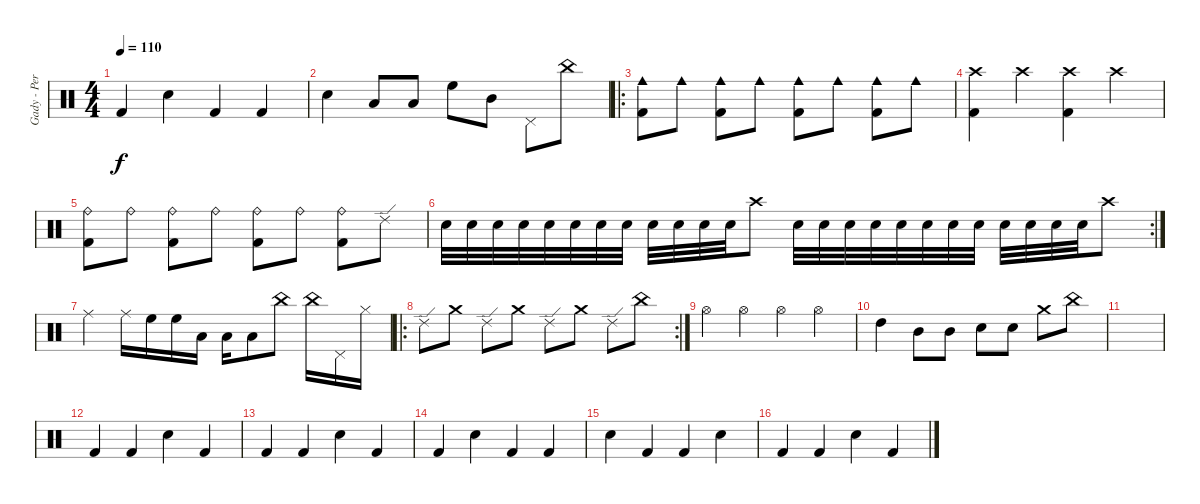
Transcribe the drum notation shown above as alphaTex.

\track ("Gady - Perkusja" "Gady - Per") {instrument percussion}
\staff {score}
\articulation defaults
\ts (4 4)
\tempo 110
\clef neutral
\ks c "Kick (hit) 2".4{dy f} "Electric Snare (hit)".4 "Kick (hit) 2".4 "Kick (hit) 2".4
|
"Electric Snare (hit)".4 "Low Tom (hit)".8 "Low Floor Tom (hit)".8 "High Floor Tom (hit)".8 "Mid Tom (hit)".8 "Pedal Hi-Hat (hit)".8 "China (hit)".8 |
\ro
("Cowbell medium (hit)" "Kick (hit) 2").8 "Cowbell medium (hit)".8 ("Cowbell medium (hit)" "Kick (hit) 2").8 "Cowbell medium (hit)".8 ("Cowbell medium (hit)" "Kick (hit) 2").8 "Cowbell medium (hit)".8 ("Cowbell medium (hit)" "Kick (hit) 2").8 "Cowbell medium (hit)".8 |
("Crash high (hit)" "Kick (hit) 2").4 "Crash high (hit)".4 ("Crash high (hit)" "Kick (hit) 2").4 "Crash high (hit)".4 |
("Ride (bell)" "Kick (hit) 2").8 "Ride (bell)".8 ("Ride (bell)" "Kick (hit) 2").8 "Ride (bell)".8 ("Ride (bell)" "Kick (hit) 2").8 "Ride (bell)".8 ("Ride (bell)" "Kick (hit) 2").8 "Ride (edge) 2".8 |
\rc 2 "Electric Snare (hit)".32 "Electric Snare (hit)".32 "Electric Snare (hit)".32 "Electric Snare (hit)".32 "Electric Snare (hit)".32 "Electric Snare (hit)".32 "Electric Snare (hit)".32 "Electric Snare (hit)".32 "Electric Snare (hit)".32 "Electric Snare (hit)".32 "Electric Snare (hit)".32 "Electric Snare (hit)".32 "Crash high (hit)".8 "Electric Snare (hit)".32 "Electric Snare (hit)".32 "Electric Snare (hit)".32 "Electric Snare (hit)".32 "Electric Snare (hit)".32 "Electric Snare (hit)".32 "Electric Snare (hit)".32 "Electric Snare (hit)".32 "Electric Snare (hit)".32 "Electric Snare (hit)".32 "Electric Snare (hit)".32 "Electric Snare (hit)".32 "Crash high (hit)".8
|
"Ride (middle)".4 "Ride (middle)".16 "High Floor Tom (hit)".16 "High Floor Tom (hit)".16 "Low Tom (hit)".16 "Low Floor Tom (hit)".16 "Low Floor Tom (hit)".8 "China (hit)".8 "China (hit)".16 "Pedal Hi-Hat (hit)".16 "Hi-Hat (closed)".16 |
\ro
\rc 2 "Ride (edge) 2".8 "Crash medium (hit)".8 "Ride (edge) 2".8 "Crash medium (hit)".8 "Ride (edge) 2".8 "Crash medium (hit)".8 "Ride (edge) 2".8 "China (hit)".8
|
"Hi-Hat (open)".4 "Hi-Hat (open)".4 "Hi-Hat (open)".4 "Hi-Hat (open)".4 |
"High Tom (hit)".4 "Mid Tom (hit)".8 "Mid Tom (hit)".8 "Snare (hit) 2".8 "Electric Snare (hit)".8 "Crash medium (hit)".8 "China (hit)".8 |
|
"Kick (hit) 2".4 "Kick (hit) 2".4 "Electric Snare (hit)".4 "Kick (hit) 2".4 |
"Kick (hit) 2".4 "Kick (hit) 2".4 "Electric Snare (hit)".4 "Kick (hit) 2".4 |
"Kick (hit) 2".4 "Electric Snare (hit)".4 "Kick (hit) 2".4 "Kick (hit) 2".4 |
"Electric Snare (hit)".4 "Kick (hit) 2".4 "Kick (hit) 2".4 "Electric Snare (hit)".4 |
"Kick (hit) 2".4 "Kick (hit) 2".4 "Electric Snare (hit)".4 "Kick (hit) 2".4
